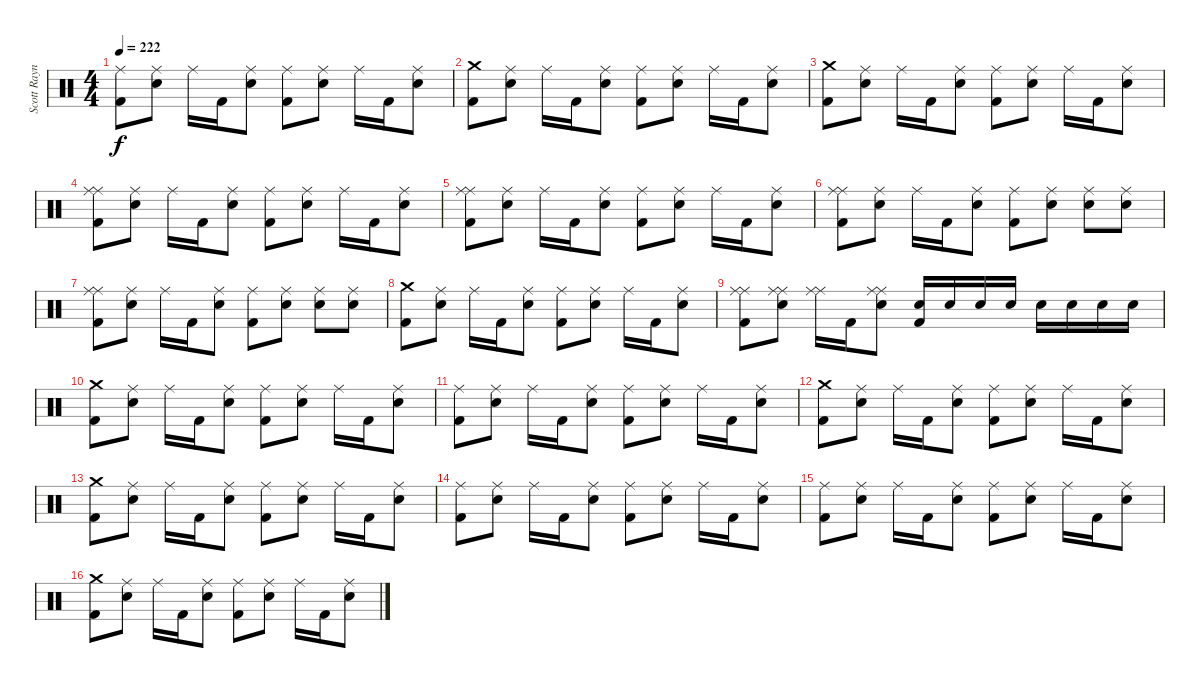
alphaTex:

\track ("Scott Raynor - Bateria/Drums" "Scott Rayn") {instrument percussion}
\staff {score}
\articulation defaults
\ts (4 4)
\tempo 222
\clef neutral
\ks c
("Ride (middle)" "Kick (hit) 2").8{dy f} ("Ride (middle)" "Electric Snare (hit)").8 "Ride (middle)".16 "Kick (hit) 2".16 ("Ride (middle)" "Electric Snare (hit)").8 ("Ride (middle)" "Kick (hit) 2").8 ("Ride (middle)" "Electric Snare (hit)").8 "Ride (middle)".16 "Kick (hit) 2".16 ("Ride (middle)" "Electric Snare (hit)").8 |
("Crash medium (hit)" "Kick (hit) 2").8 ("Ride (middle)" "Electric Snare (hit)").8 "Ride (middle)".16 "Kick (hit) 2".16 ("Ride (middle)" "Electric Snare (hit)").8 ("Ride (middle)" "Kick (hit) 2").8 ("Ride (middle)" "Electric Snare (hit)").8 "Ride (middle)".16 "Kick (hit) 2".16 ("Ride (middle)" "Electric Snare (hit)").8 |
("Crash medium (hit)" "Kick (hit) 2").8 ("Ride (middle)" "Electric Snare (hit)").8 "Ride (middle)".16 "Kick (hit) 2".16 ("Ride (middle)" "Electric Snare (hit)").8 ("Ride (middle)" "Kick (hit) 2").8 ("Ride (middle)" "Electric Snare (hit)").8 "Ride (middle)".16 "Kick (hit) 2".16 ("Ride (middle)" "Electric Snare (hit)").8 |
("Ride (middle)" "Ride (middle)" "Kick (hit) 2").8 ("Ride (middle)" "Electric Snare (hit)").8 "Ride (middle)".16 "Kick (hit) 2".16 ("Ride (middle)" "Electric Snare (hit)").8 ("Ride (middle)" "Kick (hit) 2").8 ("Ride (middle)" "Electric Snare (hit)").8 "Ride (middle)".16 "Kick (hit) 2".16 ("Ride (middle)" "Electric Snare (hit)").8 |
("Ride (middle)" "Ride (middle)" "Kick (hit) 2").8 ("Ride (middle)" "Electric Snare (hit)").8 "Ride (middle)".16 "Kick (hit) 2".16 ("Ride (middle)" "Electric Snare (hit)").8 ("Ride (middle)" "Kick (hit) 2").8 ("Ride (middle)" "Electric Snare (hit)").8 "Ride (middle)".16 "Kick (hit) 2".16 ("Ride (middle)" "Electric Snare (hit)").8 |
("Ride (middle)" "Ride (middle)" "Kick (hit) 2").8 ("Ride (middle)" "Electric Snare (hit)").8 "Ride (middle)".16 "Kick (hit) 2".16 ("Ride (middle)" "Electric Snare (hit)").8 ("Ride (middle)" "Kick (hit) 2").8 ("Ride (middle)" "Electric Snare (hit)").8 ("Ride (middle)" "Electric Snare (hit)").8 ("Ride (middle)" "Electric Snare (hit)").8 |
("Ride (middle)" "Ride (middle)" "Kick (hit) 2").8 ("Ride (middle)" "Electric Snare (hit)").8 "Ride (middle)".16 "Kick (hit) 2".16 ("Ride (middle)" "Electric Snare (hit)").8 ("Ride (middle)" "Kick (hit) 2").8 ("Ride (middle)" "Electric Snare (hit)").8 ("Ride (middle)" "Electric Snare (hit)").8 ("Ride (middle)" "Electric Snare (hit)").8 |
("Crash medium (hit)" "Kick (hit) 2").8 ("Ride (middle)" "Electric Snare (hit)").8 "Ride (middle)".16 "Kick (hit) 2".16 ("Ride (middle)" "Electric Snare (hit)").8 ("Ride (middle)" "Kick (hit) 2").8 ("Ride (middle)" "Electric Snare (hit)").8 "Ride (middle)".16 "Kick (hit) 2".16 ("Ride (middle)" "Electric Snare (hit)").8 |
("Ride (middle)" "Ride (middle)" "Kick (hit) 2").8 ("Ride (middle)" "Ride (middle)" "Electric Snare (hit)").8 ("Ride (middle)" "Ride (middle)").16 "Kick (hit) 2".16 ("Ride (middle)" "Ride (middle)" "Electric Snare (hit)").8 ("Electric Snare (hit)" "Kick (hit) 2").16 "Electric Snare (hit)".16 "Electric Snare (hit)".16 "Electric Snare (hit)".16 "Electric Snare (hit)".16 "Electric Snare (hit)".16 "Electric Snare (hit)".16 "Electric Snare (hit)".16 |
("Crash medium (hit)" "Kick (hit) 2").8 ("Ride (middle)" "Electric Snare (hit)").8 "Ride (middle)".16 "Kick (hit) 2".16 ("Ride (middle)" "Electric Snare (hit)").8 ("Ride (middle)" "Kick (hit) 2").8 ("Ride (middle)" "Electric Snare (hit)").8 "Ride (middle)".16 "Kick (hit) 2".16 ("Ride (middle)" "Electric Snare (hit)").8 |
("Ride (middle)" "Kick (hit) 2").8 ("Ride (middle)" "Electric Snare (hit)").8 "Ride (middle)".16 "Kick (hit) 2".16 ("Ride (middle)" "Electric Snare (hit)").8 ("Ride (middle)" "Kick (hit) 2").8 ("Ride (middle)" "Electric Snare (hit)").8 "Ride (middle)".16 "Kick (hit) 2".16 ("Ride (middle)" "Electric Snare (hit)").8 |
("Crash medium (hit)" "Kick (hit) 2").8 ("Ride (middle)" "Electric Snare (hit)").8 "Ride (middle)".16 "Kick (hit) 2".16 ("Ride (middle)" "Electric Snare (hit)").8 ("Ride (middle)" "Kick (hit) 2").8 ("Ride (middle)" "Electric Snare (hit)").8 "Ride (middle)".16 "Kick (hit) 2".16 ("Ride (middle)" "Electric Snare (hit)").8 |
("Crash medium (hit)" "Kick (hit) 2").8 ("Ride (middle)" "Electric Snare (hit)").8 "Ride (middle)".16 "Kick (hit) 2".16 ("Ride (middle)" "Electric Snare (hit)").8 ("Ride (middle)" "Kick (hit) 2").8 ("Ride (middle)" "Electric Snare (hit)").8 "Ride (middle)".16 "Kick (hit) 2".16 ("Ride (middle)" "Electric Snare (hit)").8 |
("Ride (middle)" "Kick (hit) 2").8 ("Ride (middle)" "Electric Snare (hit)").8 "Ride (middle)".16 "Kick (hit) 2".16 ("Ride (middle)" "Electric Snare (hit)").8 ("Ride (middle)" "Kick (hit) 2").8 ("Ride (middle)" "Electric Snare (hit)").8 "Ride (middle)".16 "Kick (hit) 2".16 ("Ride (middle)" "Electric Snare (hit)").8 |
("Ride (middle)" "Kick (hit) 2").8 ("Ride (middle)" "Electric Snare (hit)").8 "Ride (middle)".16 "Kick (hit) 2".16 ("Ride (middle)" "Electric Snare (hit)").8 ("Ride (middle)" "Kick (hit) 2").8 ("Ride (middle)" "Electric Snare (hit)").8 "Ride (middle)".16 "Kick (hit) 2".16 ("Ride (middle)" "Electric Snare (hit)").8 |
("Crash medium (hit)" "Kick (hit) 2").8 ("Ride (middle)" "Electric Snare (hit)").8 "Ride (middle)".16 "Kick (hit) 2".16 ("Ride (middle)" "Electric Snare (hit)").8 ("Ride (middle)" "Kick (hit) 2").8 ("Ride (middle)" "Electric Snare (hit)").8 "Ride (middle)".16 "Kick (hit) 2".16 ("Ride (middle)" "Electric Snare (hit)").8
